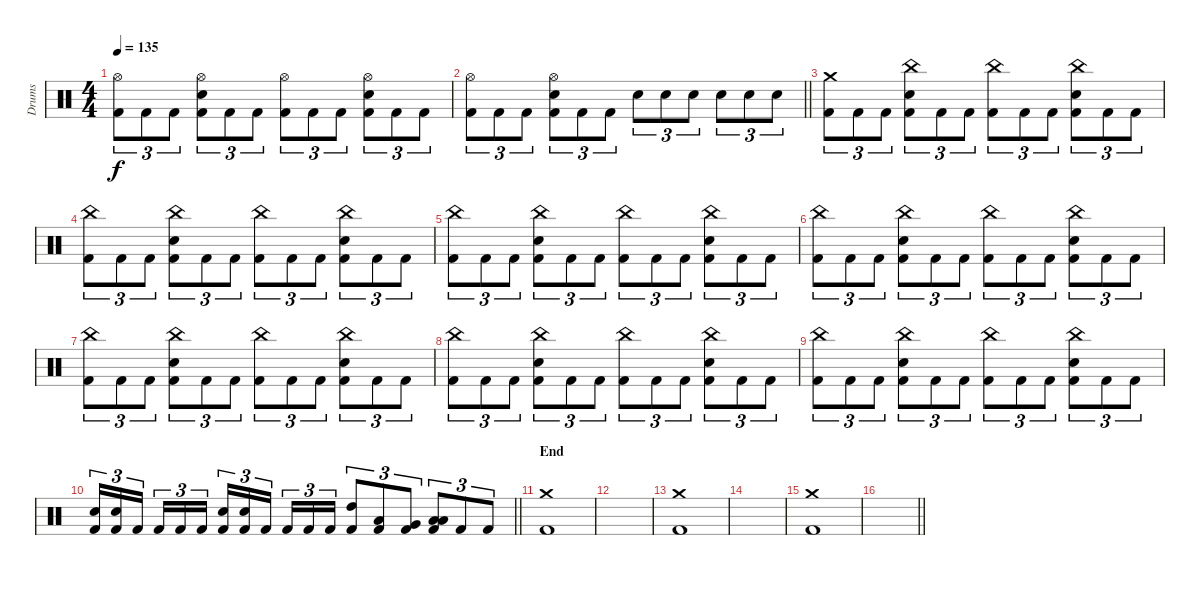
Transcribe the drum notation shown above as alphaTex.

\track ("Drums" "Drums") {instrument percussion}
\staff {score}
\articulation defaults
\ts (4 4)
\tempo 135
\clef neutral
\ks c
("Hi-Hat (open)" "Kick (hit) 2").8{tu (3 2) dy f} "Kick (hit) 2".8{tu (3 2)} "Kick (hit) 2".8{tu (3 2)} ("Hi-Hat (open)" "Snare (hit) 2" "Kick (hit) 2").8{tu (3 2)} "Kick (hit) 2".8{tu (3 2)} "Kick (hit) 2".8{tu (3 2)} ("Hi-Hat (open)" "Kick (hit) 2").8{tu (3 2)} "Kick (hit) 2".8{tu (3 2)} "Kick (hit) 2".8{tu (3 2)} ("Hi-Hat (open)" "Snare (hit) 2" "Kick (hit) 2").8{tu (3 2)} "Kick (hit) 2".8{tu (3 2)} "Kick (hit) 2".8{tu (3 2)} |
\barLineRight lightlight
("Hi-Hat (open)" "Kick (hit) 2").8{tu (3 2)} "Kick (hit) 2".8{tu (3 2)} "Kick (hit) 2".8{tu (3 2)} ("Hi-Hat (open)" "Snare (hit) 2" "Kick (hit) 2").8{tu (3 2)} "Kick (hit) 2".8{tu (3 2)} "Kick (hit) 2".8{tu (3 2)} "Snare (hit) 2".8{tu (3 2)} "Snare (hit) 2".8{tu (3 2)} "Snare (hit) 2".8{tu (3 2)} "Snare (hit) 2".8{tu (3 2)} "Snare (hit) 2".8{tu (3 2)} "Snare (hit) 2".8{tu (3 2)} |
("Crash medium (hit)" "Kick (hit) 2").8{tu (3 2)} "Kick (hit) 2".8{tu (3 2)} "Kick (hit) 2".8{tu (3 2)} ("China (hit)" "Snare (hit) 2" "Kick (hit) 2").8{tu (3 2)} "Kick (hit) 2".8{tu (3 2)} "Kick (hit) 2".8{tu (3 2)} ("China (hit)" "Kick (hit) 2").8{tu (3 2)} "Kick (hit) 2".8{tu (3 2)} "Kick (hit) 2".8{tu (3 2)} ("China (hit)" "Snare (hit) 2" "Kick (hit) 2").8{tu (3 2)} "Kick (hit) 2".8{tu (3 2)} "Kick (hit) 2".8{tu (3 2)} |
("China (hit)" "Kick (hit) 2").8{tu (3 2)} "Kick (hit) 2".8{tu (3 2)} "Kick (hit) 2".8{tu (3 2)} ("China (hit)" "Snare (hit) 2" "Kick (hit) 2").8{tu (3 2)} "Kick (hit) 2".8{tu (3 2)} "Kick (hit) 2".8{tu (3 2)} ("China (hit)" "Kick (hit) 2").8{tu (3 2)} "Kick (hit) 2".8{tu (3 2)} "Kick (hit) 2".8{tu (3 2)} ("China (hit)" "Snare (hit) 2" "Kick (hit) 2").8{tu (3 2)} "Kick (hit) 2".8{tu (3 2)} "Kick (hit) 2".8{tu (3 2)} |
("China (hit)" "Kick (hit) 2").8{tu (3 2)} "Kick (hit) 2".8{tu (3 2)} "Kick (hit) 2".8{tu (3 2)} ("China (hit)" "Snare (hit) 2" "Kick (hit) 2").8{tu (3 2)} "Kick (hit) 2".8{tu (3 2)} "Kick (hit) 2".8{tu (3 2)} ("China (hit)" "Kick (hit) 2").8{tu (3 2)} "Kick (hit) 2".8{tu (3 2)} "Kick (hit) 2".8{tu (3 2)} ("China (hit)" "Snare (hit) 2" "Kick (hit) 2").8{tu (3 2)} "Kick (hit) 2".8{tu (3 2)} "Kick (hit) 2".8{tu (3 2)} |
("China (hit)" "Kick (hit) 2").8{tu (3 2)} "Kick (hit) 2".8{tu (3 2)} "Kick (hit) 2".8{tu (3 2)} ("China (hit)" "Snare (hit) 2" "Kick (hit) 2").8{tu (3 2)} "Kick (hit) 2".8{tu (3 2)} "Kick (hit) 2".8{tu (3 2)} ("China (hit)" "Kick (hit) 2").8{tu (3 2)} "Kick (hit) 2".8{tu (3 2)} "Kick (hit) 2".8{tu (3 2)} ("China (hit)" "Snare (hit) 2" "Kick (hit) 2").8{tu (3 2)} "Kick (hit) 2".8{tu (3 2)} "Kick (hit) 2".8{tu (3 2)} |
("China (hit)" "Kick (hit) 2").8{tu (3 2)} "Kick (hit) 2".8{tu (3 2)} "Kick (hit) 2".8{tu (3 2)} ("China (hit)" "Snare (hit) 2" "Kick (hit) 2").8{tu (3 2)} "Kick (hit) 2".8{tu (3 2)} "Kick (hit) 2".8{tu (3 2)} ("China (hit)" "Kick (hit) 2").8{tu (3 2)} "Kick (hit) 2".8{tu (3 2)} "Kick (hit) 2".8{tu (3 2)} ("China (hit)" "Snare (hit) 2" "Kick (hit) 2").8{tu (3 2)} "Kick (hit) 2".8{tu (3 2)} "Kick (hit) 2".8{tu (3 2)} |
("China (hit)" "Kick (hit) 2").8{tu (3 2)} "Kick (hit) 2".8{tu (3 2)} "Kick (hit) 2".8{tu (3 2)} ("China (hit)" "Snare (hit) 2" "Kick (hit) 2").8{tu (3 2)} "Kick (hit) 2".8{tu (3 2)} "Kick (hit) 2".8{tu (3 2)} ("China (hit)" "Kick (hit) 2").8{tu (3 2)} "Kick (hit) 2".8{tu (3 2)} "Kick (hit) 2".8{tu (3 2)} ("China (hit)" "Snare (hit) 2" "Kick (hit) 2").8{tu (3 2)} "Kick (hit) 2".8{tu (3 2)} "Kick (hit) 2".8{tu (3 2)} |
("China (hit)" "Kick (hit) 2").8{tu (3 2)} "Kick (hit) 2".8{tu (3 2)} "Kick (hit) 2".8{tu (3 2)} ("China (hit)" "Snare (hit) 2" "Kick (hit) 2").8{tu (3 2)} "Kick (hit) 2".8{tu (3 2)} "Kick (hit) 2".8{tu (3 2)} ("China (hit)" "Kick (hit) 2").8{tu (3 2)} "Kick (hit) 2".8{tu (3 2)} "Kick (hit) 2".8{tu (3 2)} ("China (hit)" "Snare (hit) 2" "Kick (hit) 2").8{tu (3 2)} "Kick (hit) 2".8{tu (3 2)} "Kick (hit) 2".8{tu (3 2)} |
\barLineRight lightlight
("Snare (hit) 2" "Kick (hit) 2").16{tu (3 2)} ("Snare (hit) 2" "Kick (hit) 2").16{tu (3 2)} "Kick (hit) 2".16{tu (3 2) beam splitsecondary} "Kick (hit) 2".16{tu (3 2)} "Kick (hit) 2".16{tu (3 2)} "Kick (hit) 2".16{tu (3 2)} ("Snare (hit) 2" "Kick (hit) 2").16{tu (3 2)} ("Snare (hit) 2" "Kick (hit) 2").16{tu (3 2)} "Kick (hit) 2".16{tu (3 2) beam splitsecondary} "Kick (hit) 2".16{tu (3 2)} "Kick (hit) 2".16{tu (3 2)} "Kick (hit) 2".16{tu (3 2)} ("High Tom (hit)" "Kick (hit) 2").8{tu (3 2)} ("Low Tom (hit)" "Kick (hit) 2").8{tu (3 2)} ("Very Low Tom (hit)" "Kick (hit) 2").8{tu (3 2)} ("Low Floor Tom (hit)" "Low Floor Tom (hit)" "Kick (hit) 2").8{tu (3 2)} "Kick (hit) 2".8{tu (3 2)} "Kick (hit) 2".8{tu (3 2)} |
\section ("" "End")
("Crash medium (hit)" "Kick (hit) 2").1 |
|
("Crash medium (hit)" "Kick (hit) 2").1 |
|
("Crash medium (hit)" "Kick (hit) 2").1 |
\barLineRight lightlight
